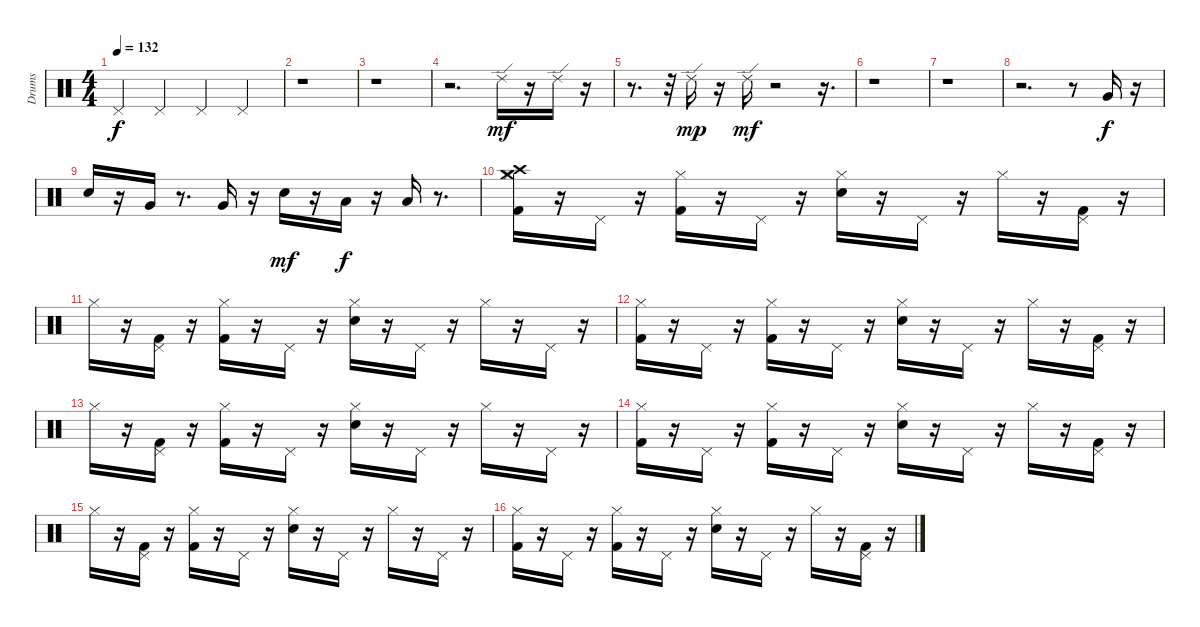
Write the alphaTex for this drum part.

\track ("Drums" "Drums") {instrument percussion}
\staff {score}
\articulation defaults
\ts (4 4)
\tempo 132
\clef neutral
\ks c "Pedal Hi-Hat (hit)".4{dy f} "Pedal Hi-Hat (hit)".4 "Pedal Hi-Hat (hit)".4 "Pedal Hi-Hat (hit)".4
|
r.1 |
r.1 |
r.2{d} "Ride (edge) 2".16{dy mf} r.16 "Ride (edge) 2".16 r.16 |
r.8{d} r.32 "Ride (edge) 2".16{dy mp} r.16 "Ride (edge) 2".16{dy mf} r.2 r.16{d} |
r.1 |
r.1 |
r.2{d} r.8 "Very Low Tom (hit)".16{dy f} r.16 |
"Electric Snare (hit)".16 r.16 "Very Low Tom (hit)".16 r.8{d} "Very Low Tom (hit)".16 r.16 "Electric Snare (hit)".16{dy mf} r.16 "Low Tom (hit)".16{dy f} r.16 "Low Floor Tom (hit)".16 r.8{d} |
("Hi-Hat (closed)" "Kick (hit) 2" "Crash medium (hit)" "Crash high (hit)").16 r.16 "Pedal Hi-Hat (hit)".16 r.16 ("Hi-Hat (closed)" "Kick (hit) 2").16 r.16 "Pedal Hi-Hat (hit)".16 r.16 ("Hi-Hat (closed)" "Electric Snare (hit)").16 r.16 "Pedal Hi-Hat (hit)".16 r.16 "Hi-Hat (closed)".16 r.16 ("Pedal Hi-Hat (hit)" "Kick (hit) 2").16 r.16 |
"Hi-Hat (closed)".16 r.16 ("Pedal Hi-Hat (hit)" "Kick (hit) 2").16 r.16 ("Hi-Hat (closed)" "Kick (hit) 2").16 r.16 "Pedal Hi-Hat (hit)".16 r.16 ("Hi-Hat (closed)" "Electric Snare (hit)").16 r.16 "Pedal Hi-Hat (hit)".16 r.16 "Hi-Hat (closed)".16 r.16 "Pedal Hi-Hat (hit)".16 r.16 |
("Hi-Hat (closed)" "Kick (hit) 2").16 r.16 "Pedal Hi-Hat (hit)".16 r.16 ("Hi-Hat (closed)" "Kick (hit) 2").16 r.16 "Pedal Hi-Hat (hit)".16 r.16 ("Hi-Hat (closed)" "Electric Snare (hit)").16 r.16 "Pedal Hi-Hat (hit)".16 r.16 "Hi-Hat (closed)".16 r.16 ("Pedal Hi-Hat (hit)" "Kick (hit) 2").16 r.16 |
"Hi-Hat (closed)".16 r.16 ("Pedal Hi-Hat (hit)" "Kick (hit) 2").16 r.16 ("Hi-Hat (closed)" "Kick (hit) 2").16 r.16 "Pedal Hi-Hat (hit)".16 r.16 ("Hi-Hat (closed)" "Electric Snare (hit)").16 r.16 "Pedal Hi-Hat (hit)".16 r.16 "Hi-Hat (closed)".16 r.16 "Pedal Hi-Hat (hit)".16 r.16 |
("Hi-Hat (closed)" "Kick (hit) 2").16 r.16 "Pedal Hi-Hat (hit)".16 r.16 ("Hi-Hat (closed)" "Kick (hit) 2").16 r.16 "Pedal Hi-Hat (hit)".16 r.16 ("Hi-Hat (closed)" "Electric Snare (hit)").16 r.16 "Pedal Hi-Hat (hit)".16 r.16 "Hi-Hat (closed)".16 r.16 ("Pedal Hi-Hat (hit)" "Kick (hit) 2").16 r.16 |
"Hi-Hat (closed)".16 r.16 ("Pedal Hi-Hat (hit)" "Kick (hit) 2").16 r.16 ("Hi-Hat (closed)" "Kick (hit) 2").16 r.16 "Pedal Hi-Hat (hit)".16 r.16 ("Hi-Hat (closed)" "Electric Snare (hit)").16 r.16 "Pedal Hi-Hat (hit)".16 r.16 "Hi-Hat (closed)".16 r.16 "Pedal Hi-Hat (hit)".16 r.16 |
("Hi-Hat (closed)" "Kick (hit) 2").16 r.16 "Pedal Hi-Hat (hit)".16 r.16 ("Hi-Hat (closed)" "Kick (hit) 2").16 r.16 "Pedal Hi-Hat (hit)".16 r.16 ("Hi-Hat (closed)" "Electric Snare (hit)").16 r.16 "Pedal Hi-Hat (hit)".16 r.16 "Hi-Hat (closed)".16 r.16 ("Pedal Hi-Hat (hit)" "Kick (hit) 2").16 r.16
